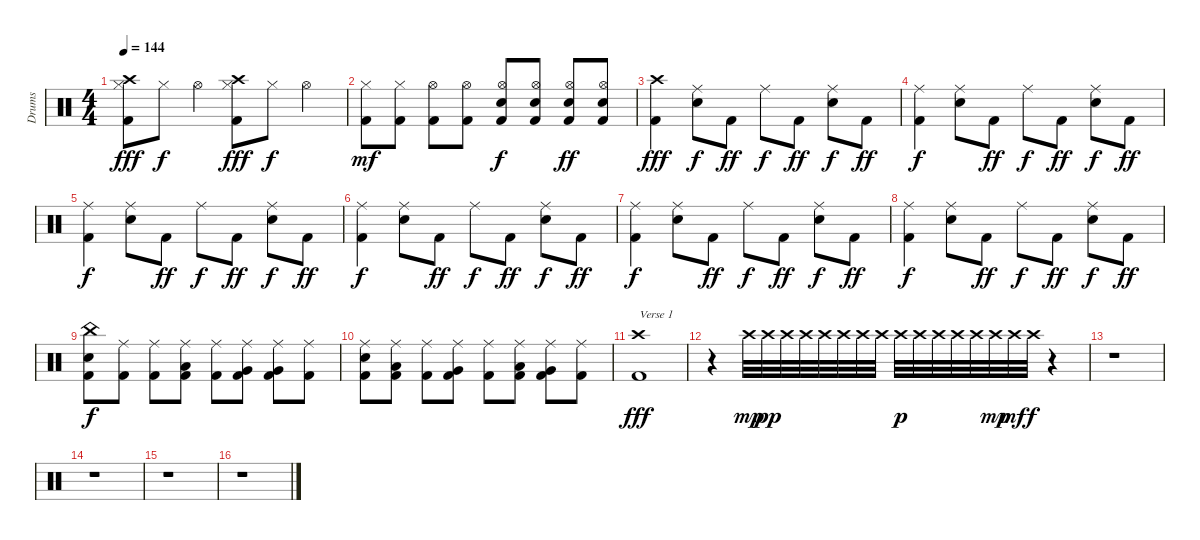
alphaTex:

\track ("Drums" "Drums") {instrument percussion}
\staff {score}
\articulation defaults
\ts (4 4)
\tempo 144
\clef neutral
\ks c
("Crash high (hit)" "Hi-Hat (closed)" "Kick (hit) 2").8{dy fff} "Hi-Hat (closed)".8{dy f} "Hi-Hat (open)".4 ("Crash high (hit)" "Hi-Hat (closed)" "Kick (hit) 2").8{dy fff} "Hi-Hat (closed)".8{dy f} "Hi-Hat (open)".4 |
("Hi-Hat (closed)" "Kick (hit) 2").8{dy mf} ("Hi-Hat (closed)" "Kick (hit) 2").8 ("Hi-Hat (open)" "Kick (hit) 2").8 ("Hi-Hat (open)" "Kick (hit) 2").8 ("Hi-Hat (open)" "Snare (hit) 2" "Kick (hit) 2").8{dy f} ("Hi-Hat (open)" "Snare (hit) 2" "Kick (hit) 2").8 ("Hi-Hat (open)" "Snare (hit) 2" "Kick (hit) 2").8{dy ff} ("Hi-Hat (open)" "Snare (hit) 2" "Kick (hit) 2").8 |
("Crash high (hit)" "Kick (hit) 2").4{dy fff} ("Ride (middle)" "Snare (hit) 2").8{dy f} "Kick (hit) 2".8{dy ff} "Ride (middle)".8{dy f} "Kick (hit) 2".8{dy ff} ("Ride (middle)" "Snare (hit) 2").8{dy f} "Kick (hit) 2".8{dy ff} |
("Ride (middle)" "Kick (hit) 2").4{dy f} ("Ride (middle)" "Snare (hit) 2").8 "Kick (hit) 2".8{dy ff} "Ride (middle)".8{dy f} "Kick (hit) 2".8{dy ff} ("Ride (middle)" "Snare (hit) 2").8{dy f} "Kick (hit) 2".8{dy ff} |
("Ride (middle)" "Kick (hit) 2").4{dy f} ("Ride (middle)" "Snare (hit) 2").8 "Kick (hit) 2".8{dy ff} "Ride (middle)".8{dy f} "Kick (hit) 2".8{dy ff} ("Ride (middle)" "Snare (hit) 2").8{dy f} "Kick (hit) 2".8{dy ff} |
("Ride (middle)" "Kick (hit) 2").4{dy f} ("Ride (middle)" "Snare (hit) 2").8 "Kick (hit) 2".8{dy ff} "Ride (middle)".8{dy f} "Kick (hit) 2".8{dy ff} ("Ride (middle)" "Snare (hit) 2").8{dy f} "Kick (hit) 2".8{dy ff} |
("Ride (middle)" "Kick (hit) 2").4{dy f} ("Ride (middle)" "Snare (hit) 2").8 "Kick (hit) 2".8{dy ff} "Ride (middle)".8{dy f} "Kick (hit) 2".8{dy ff} ("Ride (middle)" "Snare (hit) 2").8{dy f} "Kick (hit) 2".8{dy ff} |
("Ride (middle)" "Kick (hit) 2").4{dy f} ("Ride (middle)" "Snare (hit) 2").8 "Kick (hit) 2".8{dy ff} "Ride (middle)".8{dy f} "Kick (hit) 2".8{dy ff} ("Ride (middle)" "Snare (hit) 2").8{dy f} "Kick (hit) 2".8{dy ff} |
("China (hit)" "Snare (hit) 2" "Kick (hit) 2").8{dy f} ("Ride (middle)" "Kick (hit) 2").8 ("Ride (middle)" "Kick (hit) 2").8 ("Ride (middle)" "Low Tom (hit)" "Kick (hit) 2").8 ("Ride (middle)" "Kick (hit) 2").8 ("Ride (middle)" "Very Low Tom (hit)" "Kick (hit) 2").8 ("Ride (middle)" "Very Low Tom (hit)" "Kick (hit) 2").8 ("Ride (middle)" "Kick (hit) 2").8 |
("Ride (middle)" "Snare (hit) 2" "Kick (hit) 2").8 ("Ride (middle)" "Low Tom (hit)" "Kick (hit) 2").8 ("Ride (middle)" "Kick (hit) 2").8 ("Ride (middle)" "Very Low Tom (hit)" "Kick (hit) 2").8 ("Ride (middle)" "Kick (hit) 2").8 ("Ride (middle)" "Low Floor Tom (hit)" "Kick (hit) 2").8 ("Ride (middle)" "Very Low Tom (hit)" "Kick (hit) 2").8 ("Ride (middle)" "Kick (hit) 2").8 |
("Crash high (hit)" "Kick (hit) 2").1{txt "Verse 1" dy fff} |
r.4 "Crash high (hit)".32{dy mp} "Crash high (hit)".32{dy pp} "Crash high (hit)".32 "Crash high (hit)".32 "Crash high (hit)".32 "Crash high (hit)".32 "Crash high (hit)".32 "Crash high (hit)".32 "Crash high (hit)".32{dy p} "Crash high (hit)".32 "Crash high (hit)".32 "Crash high (hit)".32 "Crash high (hit)".32 "Crash high (hit)".32{dy mp} "Crash high (hit)".32{dy mf} "Crash high (hit)".32{dy f} r.4 |
r.1 |
r.1 |
r.1 |
r.1
